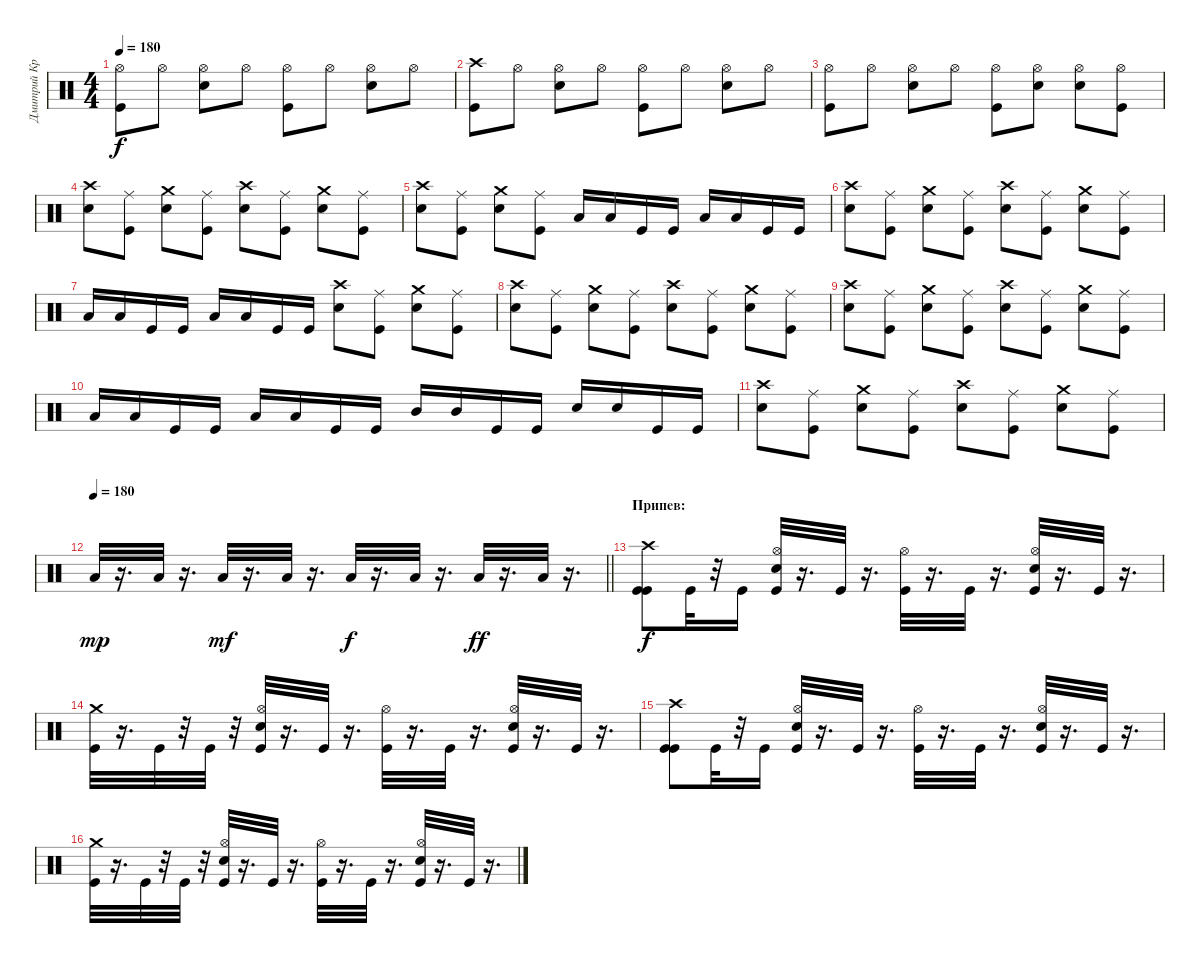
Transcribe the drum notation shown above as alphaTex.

\track ("Дмитрий Кривенков" "Дмитрий Кр") {instrument percussion}
\staff {score}
\articulation defaults
\ts (4 4)
\tempo 180
\clef neutral
\ks c
("Kick (hit)" "Hi-Hat (open)").8{dy f} "Hi-Hat (open)".8 ("Electric Snare (hit)" "Hi-Hat (open)").8 "Hi-Hat (open)".8 ("Kick (hit)" "Hi-Hat (open)").8 "Hi-Hat (open)".8 ("Electric Snare (hit)" "Hi-Hat (open)").8 "Hi-Hat (open)".8 |
("Kick (hit)" "Crash high (hit)").8 "Hi-Hat (open)".8 ("Electric Snare (hit)" "Hi-Hat (open)").8 "Hi-Hat (open)".8 ("Kick (hit)" "Hi-Hat (open)").8 "Hi-Hat (open)".8 ("Electric Snare (hit)" "Hi-Hat (open)").8 "Hi-Hat (open)".8 |
("Kick (hit)" "Hi-Hat (open)").8 "Hi-Hat (open)".8 ("Electric Snare (hit)" "Hi-Hat (open)").8 "Hi-Hat (open)".8 ("Kick (hit)" "Hi-Hat (open)").8 ("Electric Snare (hit)" "Hi-Hat (open)").8 ("Electric Snare (hit)" "Hi-Hat (open)").8 ("Kick (hit)" "Hi-Hat (open)").8 |
("Electric Snare (hit)" "Crash high (hit)").8 ("Kick (hit)" "Ride (middle)").8 ("Electric Snare (hit)" "Crash medium (hit)").8 ("Kick (hit)" "Ride (middle)").8 ("Electric Snare (hit)" "Crash high (hit)").8 ("Ride (middle)" "Kick (hit)").8 ("Crash medium (hit)" "Electric Snare (hit)").8 ("Ride (middle)" "Kick (hit)").8 |
("Crash high (hit)" "Electric Snare (hit)").8 ("Ride (middle)" "Kick (hit)").8 ("Crash medium (hit)" "Electric Snare (hit)").8 ("Ride (middle)" "Kick (hit)").8 "Low Tom (hit)".16 "Low Tom (hit)".16 "Kick (hit)".16 "Kick (hit)".16 "Low Floor Tom (hit)".16 "Low Floor Tom (hit)".16 "Kick (hit)".16 "Kick (hit)".16 |
("Crash high (hit)" "Electric Snare (hit)").8 ("Ride (middle)" "Kick (hit)").8 ("Crash medium (hit)" "Electric Snare (hit)").8 ("Ride (middle)" "Kick (hit)").8 ("Crash high (hit)" "Electric Snare (hit)").8 ("Ride (middle)" "Kick (hit)").8 ("Crash medium (hit)" "Electric Snare (hit)").8 ("Ride (middle)" "Kick (hit)").8 |
"Low Floor Tom (hit)".16 "Low Floor Tom (hit)".16 "Kick (hit)".16 "Kick (hit)".16 "Low Tom (hit)".16 "Low Tom (hit)".16 "Kick (hit)".16 "Kick (hit)".16 ("Electric Snare (hit)" "Crash high (hit)").8 ("Kick (hit)" "Ride (middle)").8 ("Electric Snare (hit)" "Crash medium (hit)").8 ("Kick (hit)" "Ride (middle)").8 |
("Electric Snare (hit)" "Crash high (hit)").8 ("Kick (hit)" "Ride (middle)").8 ("Electric Snare (hit)" "Crash medium (hit)").8 ("Kick (hit)" "Ride (middle)").8 ("Electric Snare (hit)" "Crash high (hit)").8 ("Kick (hit)" "Ride (middle)").8 ("Electric Snare (hit)" "Crash medium (hit)").8 ("Kick (hit)" "Ride (middle)").8 |
("Electric Snare (hit)" "Crash high (hit)").8 ("Kick (hit)" "Ride (middle)").8 ("Electric Snare (hit)" "Crash medium (hit)").8 ("Kick (hit)" "Ride (middle)").8 ("Electric Snare (hit)" "Crash high (hit)").8 ("Kick (hit)" "Ride (middle)").8 ("Electric Snare (hit)" "Crash medium (hit)").8 ("Kick (hit)" "Ride (middle)").8 |
"Low Floor Tom (hit)".16 "Low Floor Tom (hit)".16 "Kick (hit)".16 "Kick (hit)".16 "Low Tom (hit)".16 "Low Tom (hit)".16 "Kick (hit)".16 "Kick (hit)".16 "Mid Tom (hit)".16 "Mid Tom (hit)".16 "Kick (hit)".16 "Kick (hit)".16 "Electric Snare (hit)".16 "Electric Snare (hit)".16 "Kick (hit)".16 "Kick (hit)".16 |
("Electric Snare (hit)" "Crash high (hit)").8 ("Kick (hit)" "Ride (middle)").8 ("Electric Snare (hit)" "Crash medium (hit)").8 ("Kick (hit)" "Ride (middle)").8 ("Electric Snare (hit)" "Crash high (hit)").8 ("Kick (hit)" "Ride (middle)").8 ("Electric Snare (hit)" "Crash medium (hit)").8 ("Kick (hit)" "Ride (middle)").8 |
\tempo 180
\barLineRight lightlight "Low Floor Tom (hit)".32{dy mp}
r.16{d} "Low Floor Tom (hit)".32 r.16{d} "Low Floor Tom (hit)".32{dy mf} r.16{d} "Low Floor Tom (hit)".32 r.16{d} "Low Floor Tom (hit)".32{dy f} r.16{d} "Low Floor Tom (hit)".32 r.16{d} "Low Floor Tom (hit)".32{dy ff} r.16{d} "Low Floor Tom (hit)".32 r.16{d} |
\section ("" "Припев:")
("Kick (hit)" "Crash high (hit)" "Kick (hit)").8{dy f} "Kick (hit)".32 r.32 "Kick (hit)".16 ("Kick (hit)" "Electric Snare (hit)" "Hi-Hat (open)").32 r.16{d} "Kick (hit)".32 r.16{d} ("Kick (hit)" "Hi-Hat (open)").32 r.16{d} "Kick (hit)".32 r.16{d} ("Electric Snare (hit)" "Kick (hit)" "Hi-Hat (open)").32 r.16{d} "Kick (hit)".32 r.16{d} |
("Crash medium (hit)" "Kick (hit)").32 r.16{d} "Kick (hit)".32 r.32 "Kick (hit)".32 r.32 ("Hi-Hat (open)" "Electric Snare (hit)" "Kick (hit)").32 r.16{d} "Kick (hit)".32 r.16{d} ("Hi-Hat (open)" "Kick (hit)").32 r.16{d} "Kick (hit)".32 r.16{d} ("Electric Snare (hit)" "Hi-Hat (open)" "Kick (hit)").32 r.16{d} "Kick (hit)".32 r.16{d} |
("Kick (hit)" "Crash high (hit)" "Kick (hit)").8 "Kick (hit)".32 r.32 "Kick (hit)".16 ("Hi-Hat (open)" "Electric Snare (hit)" "Kick (hit)").32 r.16{d} "Kick (hit)".32 r.16{d} ("Hi-Hat (open)" "Kick (hit)").32 r.16{d} "Kick (hit)".32 r.16{d} ("Electric Snare (hit)" "Kick (hit)" "Hi-Hat (open)").32 r.16{d} "Kick (hit)".32 r.16{d} |
("Crash medium (hit)" "Kick (hit)").32 r.16{d} "Kick (hit)".32 r.32 "Kick (hit)".32 r.32 ("Kick (hit)" "Electric Snare (hit)" "Hi-Hat (open)").32 r.16{d} "Kick (hit)".32 r.16{d} ("Kick (hit)" "Hi-Hat (open)").32 r.16{d} "Kick (hit)".32 r.16{d} ("Kick (hit)" "Hi-Hat (open)" "Electric Snare (hit)").32 r.16{d} "Kick (hit)".32 r.16{d}
